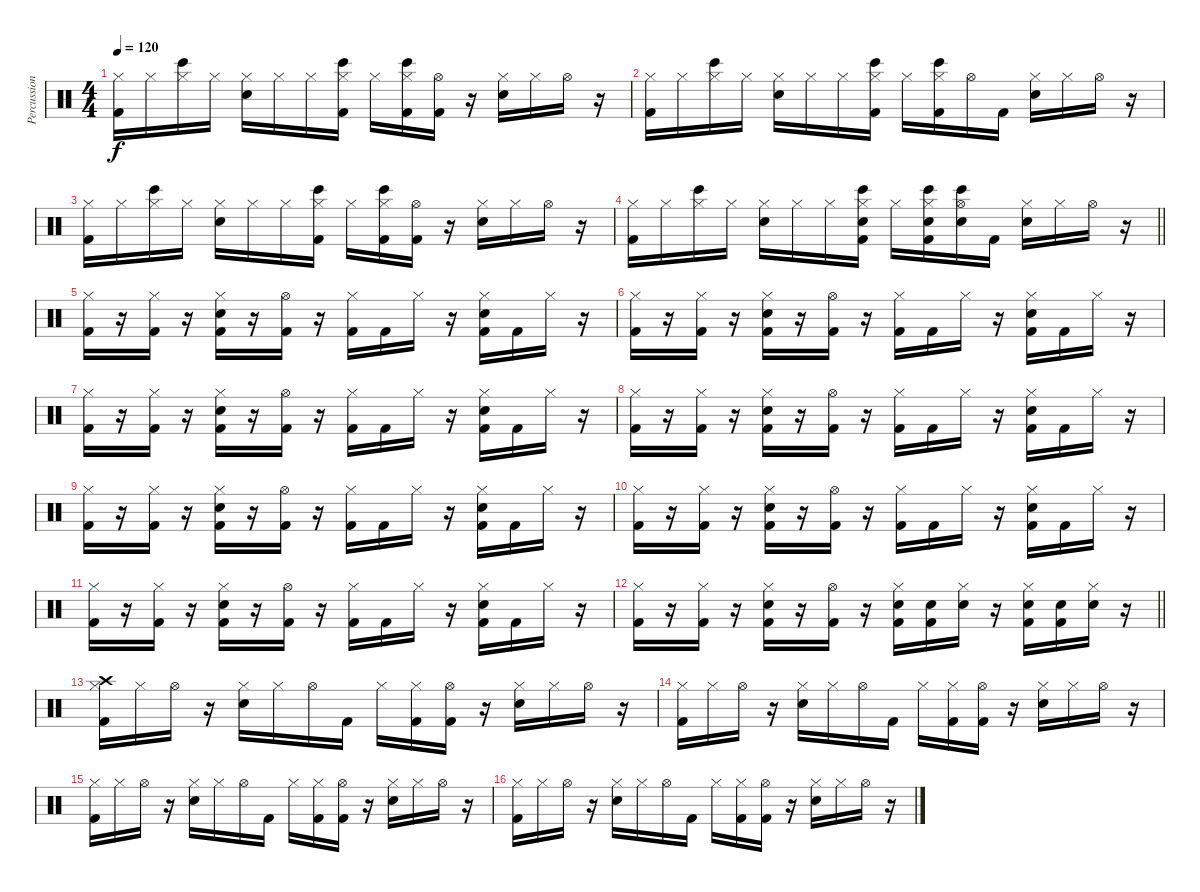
\track ("Percussion" "Percussion") {instrument percussion}
\staff {score}
\articulation defaults
\ts (4 4)
\tempo 120
\clef neutral
\ks c
("Hi-Hat (closed)" "Kick (hit) 2").16{dy f} "Hi-Hat (closed)".16 ("Hi-Hat (closed)" "Bongo High (hit)").16 "Hi-Hat (closed)".16 ("Hi-Hat (closed)" "Snare (hit) 2").16 "Hi-Hat (closed)".16 "Hi-Hat (closed)".16 ("Hi-Hat (closed)" "Bongo High (hit)" "Kick (hit) 2").16 "Hi-Hat (closed)".16 ("Hi-Hat (closed)" "Bongo High (hit)" "Kick (hit) 2").16 ("Hi-Hat (open)" "Kick (hit) 2").16 r.16 ("Hi-Hat (closed)" "Snare (hit) 2").16 "Hi-Hat (closed)".16 "Hi-Hat (open)".16 r.16 |
("Hi-Hat (closed)" "Kick (hit) 2").16 "Hi-Hat (closed)".16 ("Hi-Hat (closed)" "Bongo High (hit)").16 "Hi-Hat (closed)".16 ("Hi-Hat (closed)" "Snare (hit) 2").16 "Hi-Hat (closed)".16 "Hi-Hat (closed)".16 ("Hi-Hat (closed)" "Bongo High (hit)" "Kick (hit) 2").16 "Hi-Hat (closed)".16 ("Hi-Hat (closed)" "Bongo High (hit)" "Kick (hit) 2").16 "Hi-Hat (open)".16 "Kick (hit) 2".16 ("Hi-Hat (closed)" "Snare (hit) 2").16 "Hi-Hat (closed)".16 "Hi-Hat (open)".16 r.16 |
("Hi-Hat (closed)" "Kick (hit) 2").16 "Hi-Hat (closed)".16 ("Hi-Hat (closed)" "Bongo High (hit)").16 "Hi-Hat (closed)".16 ("Hi-Hat (closed)" "Snare (hit) 2").16 "Hi-Hat (closed)".16 "Hi-Hat (closed)".16 ("Hi-Hat (closed)" "Bongo High (hit)" "Kick (hit) 2").16 "Hi-Hat (closed)".16 ("Hi-Hat (closed)" "Bongo High (hit)" "Kick (hit) 2").16 ("Hi-Hat (open)" "Kick (hit) 2").16 r.16 ("Hi-Hat (closed)" "Snare (hit) 2").16 "Hi-Hat (closed)".16 "Hi-Hat (open)".16 r.16 |
\barLineRight lightlight
("Hi-Hat (closed)" "Kick (hit) 2").16 "Hi-Hat (closed)".16 ("Hi-Hat (closed)" "Bongo High (hit)").16 "Hi-Hat (closed)".16 ("Hi-Hat (closed)" "Snare (hit) 2").16 "Hi-Hat (closed)".16 "Hi-Hat (closed)".16 ("Hi-Hat (closed)" "Bongo High (hit)" "Snare (hit) 2" "Kick (hit) 2").16 "Hi-Hat (closed)".16 ("Hi-Hat (closed)" "Bongo High (hit)" "Snare (hit) 2" "Kick (hit) 2").16 ("Hi-Hat (open)" "Bongo High (hit)" "Snare (hit) 2").16 "Kick (hit) 2".16 ("Hi-Hat (closed)" "Snare (hit) 2").16 "Hi-Hat (closed)".16 "Hi-Hat (open)".16 r.16 |
("Hi-Hat (closed)" "Kick (hit) 2").16 r.16 ("Hi-Hat (closed)" "Kick (hit) 2").16 r.16 ("Hi-Hat (closed)" "Snare (hit) 2" "Kick (hit) 2").16 r.16 ("Hi-Hat (open)" "Kick (hit) 2").16 r.16 ("Hi-Hat (closed)" "Kick (hit) 2").16 "Kick (hit) 2".16 "Hi-Hat (closed)".16 r.16 ("Hi-Hat (closed)" "Snare (hit) 2" "Kick (hit) 2").16 "Kick (hit) 2".16 "Hi-Hat (closed)".16 r.16 |
("Hi-Hat (closed)" "Kick (hit) 2").16 r.16 ("Hi-Hat (closed)" "Kick (hit) 2").16 r.16 ("Hi-Hat (closed)" "Snare (hit) 2" "Kick (hit) 2").16 r.16 ("Hi-Hat (open)" "Kick (hit) 2").16 r.16 ("Hi-Hat (closed)" "Kick (hit) 2").16 "Kick (hit) 2".16 "Hi-Hat (closed)".16 r.16 ("Hi-Hat (closed)" "Snare (hit) 2" "Kick (hit) 2").16 "Kick (hit) 2".16 "Hi-Hat (closed)".16 r.16 |
("Hi-Hat (closed)" "Kick (hit) 2").16 r.16 ("Hi-Hat (closed)" "Kick (hit) 2").16 r.16 ("Hi-Hat (closed)" "Snare (hit) 2" "Kick (hit) 2").16 r.16 ("Hi-Hat (open)" "Kick (hit) 2").16 r.16 ("Hi-Hat (closed)" "Kick (hit) 2").16 "Kick (hit) 2".16 "Hi-Hat (closed)".16 r.16 ("Hi-Hat (closed)" "Snare (hit) 2" "Kick (hit) 2").16 "Kick (hit) 2".16 "Hi-Hat (closed)".16 r.16 |
("Hi-Hat (closed)" "Kick (hit) 2").16 r.16 ("Hi-Hat (closed)" "Kick (hit) 2").16 r.16 ("Hi-Hat (closed)" "Snare (hit) 2" "Kick (hit) 2").16 r.16 ("Hi-Hat (open)" "Kick (hit) 2").16 r.16 ("Hi-Hat (closed)" "Kick (hit) 2").16 "Kick (hit) 2".16 "Hi-Hat (closed)".16 r.16 ("Hi-Hat (closed)" "Snare (hit) 2" "Kick (hit) 2").16 "Kick (hit) 2".16 "Hi-Hat (closed)".16 r.16 |
("Hi-Hat (closed)" "Kick (hit) 2").16 r.16 ("Hi-Hat (closed)" "Kick (hit) 2").16 r.16 ("Hi-Hat (closed)" "Snare (hit) 2" "Kick (hit) 2").16 r.16 ("Hi-Hat (open)" "Kick (hit) 2").16 r.16 ("Hi-Hat (closed)" "Kick (hit) 2").16 "Kick (hit) 2".16 "Hi-Hat (closed)".16 r.16 ("Hi-Hat (closed)" "Snare (hit) 2" "Kick (hit) 2").16 "Kick (hit) 2".16 "Hi-Hat (closed)".16 r.16 |
("Hi-Hat (closed)" "Kick (hit) 2").16 r.16 ("Hi-Hat (closed)" "Kick (hit) 2").16 r.16 ("Hi-Hat (closed)" "Snare (hit) 2" "Kick (hit) 2").16 r.16 ("Hi-Hat (open)" "Kick (hit) 2").16 r.16 ("Hi-Hat (closed)" "Kick (hit) 2").16 "Kick (hit) 2".16 "Hi-Hat (closed)".16 r.16 ("Hi-Hat (closed)" "Snare (hit) 2" "Kick (hit) 2").16 "Kick (hit) 2".16 "Hi-Hat (closed)".16 r.16 |
("Hi-Hat (closed)" "Kick (hit) 2").16 r.16 ("Hi-Hat (closed)" "Kick (hit) 2").16 r.16 ("Hi-Hat (closed)" "Snare (hit) 2" "Kick (hit) 2").16 r.16 ("Hi-Hat (open)" "Kick (hit) 2").16 r.16 ("Hi-Hat (closed)" "Kick (hit) 2").16 "Kick (hit) 2".16 "Hi-Hat (closed)".16 r.16 ("Hi-Hat (closed)" "Snare (hit) 2" "Kick (hit) 2").16 "Kick (hit) 2".16 "Hi-Hat (closed)".16 r.16 |
\barLineRight lightlight
("Hi-Hat (closed)" "Kick (hit) 2").16 r.16 ("Hi-Hat (closed)" "Kick (hit) 2").16 r.16 ("Hi-Hat (closed)" "Snare (hit) 2" "Kick (hit) 2").16 r.16 ("Hi-Hat (open)" "Kick (hit) 2").16 r.16 ("Hi-Hat (closed)" "Snare (hit) 2" "Kick (hit) 2").16 ("Snare (hit) 2" "Kick (hit) 2").16 ("Hi-Hat (closed)" "Snare (hit) 2").16 r.16 ("Hi-Hat (closed)" "Snare (hit) 2" "Kick (hit) 2").16 ("Snare (hit) 2" "Kick (hit) 2").16 ("Hi-Hat (closed)" "Snare (hit) 2").16 r.16 |
("Hi-Hat (closed)" "Crash high (hit)" "Kick (hit) 2").16 "Hi-Hat (closed)".16 "Hi-Hat (open)".16 r.16 ("Hi-Hat (closed)" "Snare (hit) 2").16 "Hi-Hat (closed)".16 "Hi-Hat (open)".16 "Kick (hit) 2".16 "Hi-Hat (closed)".16 ("Hi-Hat (closed)" "Kick (hit) 2").16 ("Hi-Hat (open)" "Kick (hit) 2").16 r.16 ("Hi-Hat (closed)" "Snare (hit) 2").16 "Hi-Hat (closed)".16 "Hi-Hat (open)".16 r.16 |
("Hi-Hat (closed)" "Kick (hit) 2").16 "Hi-Hat (closed)".16 "Hi-Hat (open)".16 r.16 ("Hi-Hat (closed)" "Snare (hit) 2").16 "Hi-Hat (closed)".16 "Hi-Hat (open)".16 "Kick (hit) 2".16 "Hi-Hat (closed)".16 ("Hi-Hat (closed)" "Kick (hit) 2").16 ("Hi-Hat (open)" "Kick (hit) 2").16 r.16 ("Hi-Hat (closed)" "Snare (hit) 2").16 "Hi-Hat (closed)".16 "Hi-Hat (open)".16 r.16 |
("Hi-Hat (closed)" "Kick (hit) 2").16 "Hi-Hat (closed)".16 "Hi-Hat (open)".16 r.16 ("Hi-Hat (closed)" "Snare (hit) 2").16 "Hi-Hat (closed)".16 "Hi-Hat (open)".16 "Kick (hit) 2".16 "Hi-Hat (closed)".16 ("Hi-Hat (closed)" "Kick (hit) 2").16 ("Hi-Hat (open)" "Kick (hit) 2").16 r.16 ("Hi-Hat (closed)" "Snare (hit) 2").16 "Hi-Hat (closed)".16 "Hi-Hat (open)".16 r.16 |
("Hi-Hat (closed)" "Kick (hit) 2").16 "Hi-Hat (closed)".16 "Hi-Hat (open)".16 r.16 ("Hi-Hat (closed)" "Snare (hit) 2").16 "Hi-Hat (closed)".16 "Hi-Hat (open)".16 "Kick (hit) 2".16 "Hi-Hat (closed)".16 ("Hi-Hat (closed)" "Kick (hit) 2").16 ("Hi-Hat (open)" "Kick (hit) 2").16 r.16 ("Hi-Hat (closed)" "Snare (hit) 2").16 "Hi-Hat (closed)".16 "Hi-Hat (open)".16 r.16
